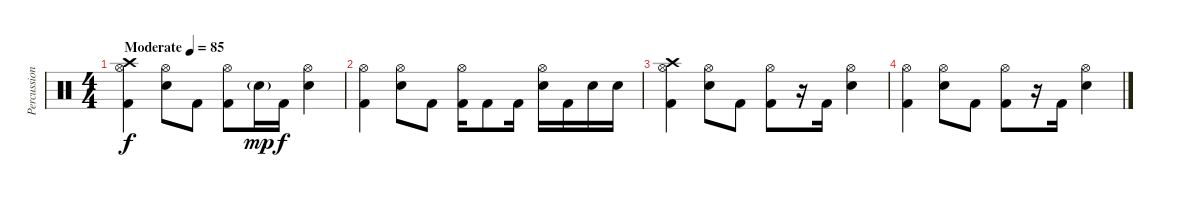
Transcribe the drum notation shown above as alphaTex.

\track ("Percussion" "Percussion") {instrument percussion}
\staff {score}
\articulation defaults
\ts (4 4)
\tempo (85 "Moderate")
\clef neutral
\ks c
("Hi-Hat (open)" "Crash high (hit)" "Kick (hit) 2").4{dy f} ("Hi-Hat (open)" "Snare (hit) 2").8 "Kick (hit) 2".8 ("Hi-Hat (open)" "Kick (hit) 2").8 "Snare (hit) 2"{g}.16{dy mp} "Kick (hit) 2".16{dy f} ("Hi-Hat (open)" "Snare (hit) 2").4 |
("Hi-Hat (open)" "Kick (hit) 2").4 ("Hi-Hat (open)" "Snare (hit) 2").8 "Kick (hit) 2".8 ("Hi-Hat (open)" "Kick (hit) 2").16 "Kick (hit) 2".8 "Kick (hit) 2".16 ("Hi-Hat (open)" "Snare (hit) 2").16 "Kick (hit) 2".16 "Snare (hit) 2".16 "Snare (hit) 2".16 |
("Hi-Hat (open)" "Crash high (hit)" "Kick (hit) 2").4 ("Hi-Hat (open)" "Snare (hit) 2").8 "Kick (hit) 2".8 ("Hi-Hat (open)" "Kick (hit) 2").8 r.16 "Kick (hit) 2".16 ("Hi-Hat (open)" "Snare (hit) 2").4 |
("Hi-Hat (open)" "Kick (hit) 2").4 ("Hi-Hat (open)" "Snare (hit) 2").8 "Kick (hit) 2".8 ("Hi-Hat (open)" "Kick (hit) 2").8 r.16 "Kick (hit) 2".16 ("Hi-Hat (open)" "Snare (hit) 2").4
